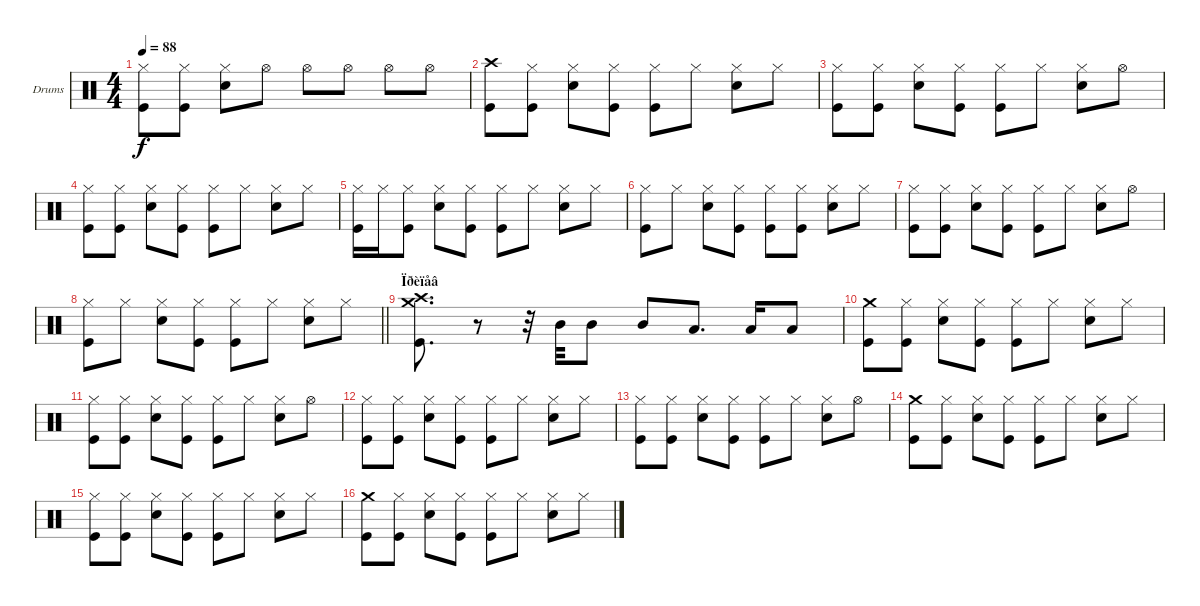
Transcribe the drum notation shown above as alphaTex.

\bracketExtendMode groupsimilarinstruments
\firstSystemTrackNameOrientation horizontal
\otherSystemsTrackNameOrientation horizontal
\track ("Drumkit" "Drums") {instrument percussion}
\staff {score}
\articulation defaults
\ts (4 4)
\tempo 88
\clef neutral
\ks c
("Kick (hit)" "Hi-Hat (closed)").8{dy f} ("Kick (hit)" "Hi-Hat (closed)").8 ("Snare (hit) 2" "Hi-Hat (closed)").8 "Hi-Hat (open)".8 "Hi-Hat (open)".8 "Hi-Hat (open)".8 "Hi-Hat (open)".8 "Hi-Hat (open)".8 |
("Kick (hit)" "Crash high (hit)").8 ("Kick (hit)" "Hi-Hat (closed)").8 ("Snare (hit) 2" "Hi-Hat (closed)").8 ("Kick (hit)" "Hi-Hat (closed)").8 ("Kick (hit)" "Hi-Hat (closed)").8 "Hi-Hat (closed)".8 ("Snare (hit) 2" "Hi-Hat (closed)").8 "Hi-Hat (closed)".8 |
("Kick (hit)" "Hi-Hat (closed)").8 ("Kick (hit)" "Hi-Hat (closed)").8 ("Snare (hit) 2" "Hi-Hat (closed)").8 ("Kick (hit)" "Hi-Hat (closed)").8 ("Kick (hit)" "Hi-Hat (closed)").8 "Hi-Hat (closed)".8 ("Snare (hit) 2" "Hi-Hat (closed)").8 "Hi-Hat (open)".8 |
("Kick (hit)" "Hi-Hat (closed)").8 ("Kick (hit)" "Hi-Hat (closed)").8 ("Snare (hit) 2" "Hi-Hat (closed)").8 ("Kick (hit)" "Hi-Hat (closed)").8 ("Kick (hit)" "Hi-Hat (closed)").8 "Hi-Hat (closed)".8 ("Snare (hit) 2" "Hi-Hat (closed)").8 "Hi-Hat (closed)".8 |
("Kick (hit)" "Hi-Hat (closed)").16 "Hi-Hat (closed)".16 ("Kick (hit)" "Hi-Hat (closed)").8 ("Snare (hit) 2" "Hi-Hat (closed)").8 ("Kick (hit)" "Hi-Hat (closed)").8 ("Kick (hit)" "Hi-Hat (closed)").8 "Hi-Hat (closed)".8 ("Snare (hit) 2" "Hi-Hat (closed)").8 "Hi-Hat (closed)".8 |
("Kick (hit)" "Hi-Hat (closed)").8 "Hi-Hat (closed)".8 ("Snare (hit) 2" "Hi-Hat (closed)").8 ("Kick (hit)" "Hi-Hat (closed)").8 ("Kick (hit)" "Hi-Hat (closed)").8 ("Kick (hit)" "Hi-Hat (closed)").8 ("Snare (hit) 2" "Hi-Hat (closed)").8 "Hi-Hat (closed)".8 |
("Kick (hit)" "Hi-Hat (closed)").8 ("Kick (hit)" "Hi-Hat (closed)").8 ("Snare (hit) 2" "Hi-Hat (closed)").8 ("Kick (hit)" "Hi-Hat (closed)").8 ("Kick (hit)" "Hi-Hat (closed)").8 "Hi-Hat (closed)".8 ("Snare (hit) 2" "Hi-Hat (closed)").8 "Hi-Hat (open)".8 |
\barLineRight lightlight
("Kick (hit)" "Hi-Hat (closed)").8 "Hi-Hat (closed)".8 ("Snare (hit) 2" "Hi-Hat (closed)").8 ("Kick (hit)" "Hi-Hat (closed)").8 ("Kick (hit)" "Hi-Hat (closed)").8 "Hi-Hat (closed)".8 ("Snare (hit) 2" "Hi-Hat (closed)").8 "Hi-Hat (closed)".8 |
\section ("" "Ïðèïåâ")
("Kick (hit)" "Crash high (hit)" "Crash medium (hit)").8{d} r.8 r.32 "Mid Tom (hit)".32 "Mid Tom (hit)".8 "Mid Tom (hit)".8 "Low Tom (hit)".8{d} "Low Tom (hit)".16 "Low Tom (hit)".8 |
("Kick (hit)" "Crash medium (hit)").8 ("Kick (hit)" "Hi-Hat (closed)").8 ("Snare (hit) 2" "Hi-Hat (closed)").8 ("Kick (hit)" "Hi-Hat (closed)").8 ("Kick (hit)" "Hi-Hat (closed)").8 "Hi-Hat (closed)".8 ("Snare (hit) 2" "Hi-Hat (closed)").8 "Hi-Hat (closed)".8 |
("Kick (hit)" "Hi-Hat (closed)").8 ("Kick (hit)" "Hi-Hat (closed)").8 ("Snare (hit) 2" "Hi-Hat (closed)").8 ("Kick (hit)" "Hi-Hat (closed)").8 ("Kick (hit)" "Hi-Hat (closed)").8 "Hi-Hat (closed)".8 ("Snare (hit) 2" "Hi-Hat (closed)").8 "Hi-Hat (open)".8 |
("Kick (hit)" "Hi-Hat (closed)").8 ("Kick (hit)" "Hi-Hat (closed)").8 ("Snare (hit) 2" "Hi-Hat (closed)").8 ("Kick (hit)" "Hi-Hat (closed)").8 ("Kick (hit)" "Hi-Hat (closed)").8 "Hi-Hat (closed)".8 ("Snare (hit) 2" "Hi-Hat (closed)").8 "Hi-Hat (closed)".8 |
("Kick (hit)" "Hi-Hat (closed)").8 ("Kick (hit)" "Hi-Hat (closed)").8 ("Snare (hit) 2" "Hi-Hat (closed)").8 ("Kick (hit)" "Hi-Hat (closed)").8 ("Kick (hit)" "Hi-Hat (closed)").8 "Hi-Hat (closed)".8 ("Snare (hit) 2" "Hi-Hat (closed)").8 "Hi-Hat (open)".8 |
("Kick (hit)" "Crash medium (hit)").8 ("Kick (hit)" "Hi-Hat (closed)").8 ("Snare (hit) 2" "Hi-Hat (closed)").8 ("Kick (hit)" "Hi-Hat (closed)").8 ("Kick (hit)" "Hi-Hat (closed)").8 "Hi-Hat (closed)".8 ("Snare (hit) 2" "Hi-Hat (closed)").8 "Hi-Hat (closed)".8 |
("Kick (hit)" "Hi-Hat (closed)").8 ("Kick (hit)" "Hi-Hat (closed)").8 ("Snare (hit) 2" "Hi-Hat (closed)").8 ("Kick (hit)" "Hi-Hat (closed)").8 ("Kick (hit)" "Hi-Hat (closed)").8 "Hi-Hat (closed)".8 ("Snare (hit) 2" "Hi-Hat (closed)").8 "Hi-Hat (closed)".8 |
("Kick (hit)" "Crash medium (hit)").8 ("Kick (hit)" "Hi-Hat (closed)").8 ("Snare (hit) 2" "Hi-Hat (closed)").8 ("Kick (hit)" "Hi-Hat (closed)").8 ("Kick (hit)" "Hi-Hat (closed)").8 "Hi-Hat (closed)".8 ("Snare (hit) 2" "Hi-Hat (closed)").8 "Hi-Hat (closed)".8
